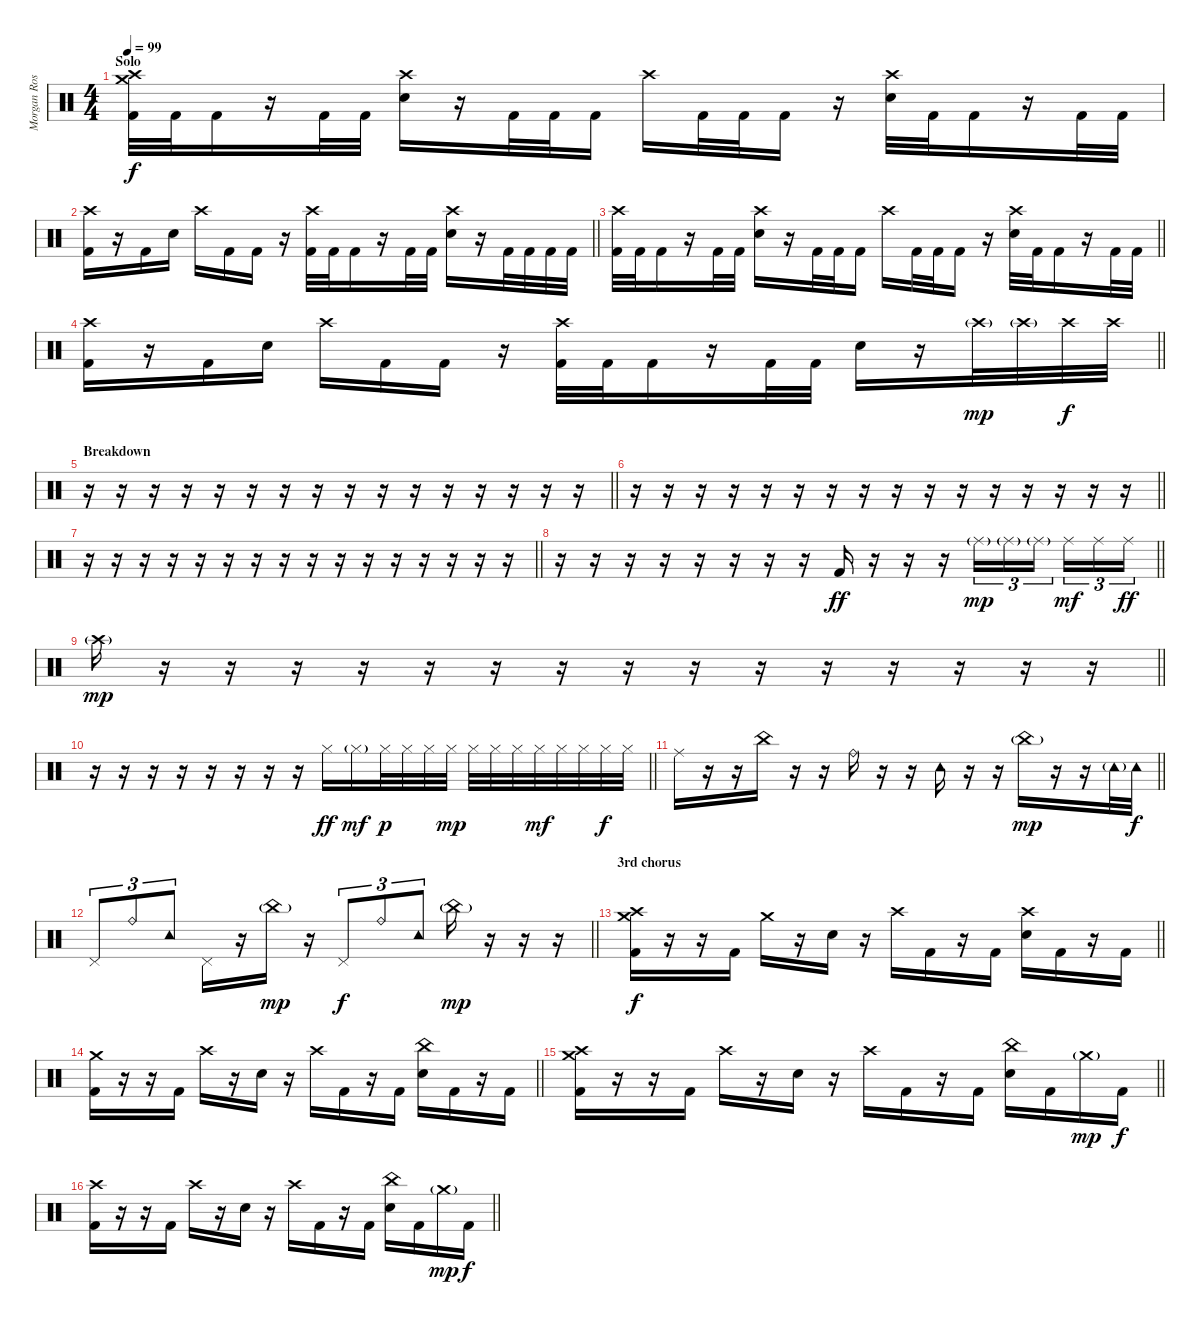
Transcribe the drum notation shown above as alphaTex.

\track ("Morgan Rose" "Morgan Ros") {instrument percussion}
\staff {score}
\articulation defaults
\ts (4 4)
\section ("" "Solo")
\tempo 99
\clef neutral
\ks c
("Crash medium (hit)" "Crash high (hit)" "Kick (hit) 2").32{dy f} "Kick (hit) 2".32 "Kick (hit) 2".16 r.16 "Kick (hit) 2".32 "Kick (hit) 2".32 ("Crash high (hit)" "Snare (hit) 2").16 r.16 "Kick (hit) 2".32 "Kick (hit) 2".32 "Kick (hit) 2".16 "Crash high (hit)".16 "Kick (hit) 2".32 "Kick (hit) 2".32 "Kick (hit) 2".16 r.16 ("Crash high (hit)" "Snare (hit) 2").32 "Kick (hit) 2".32 "Kick (hit) 2".16 r.16 "Kick (hit) 2".32 "Kick (hit) 2".32 |
\barLineRight lightlight
("Crash high (hit)" "Kick (hit) 2").16 r.16 "Kick (hit) 2".16 "Snare (hit) 2".16 "Crash high (hit)".16 "Kick (hit) 2".16 "Kick (hit) 2".16 r.16 ("Crash high (hit)" "Kick (hit) 2").32 "Kick (hit) 2".32 "Kick (hit) 2".16 r.16 "Kick (hit) 2".32 "Kick (hit) 2".32 ("Crash high (hit)" "Snare (hit) 2").16 r.16 "Kick (hit) 2".32 "Kick (hit) 2".32 "Kick (hit) 2".32 "Kick (hit) 2".32 |
\barLineRight lightlight
("Crash high (hit)" "Kick (hit) 2").32 "Kick (hit) 2".32 "Kick (hit) 2".16 r.16 "Kick (hit) 2".32 "Kick (hit) 2".32 ("Crash high (hit)" "Snare (hit) 2").16 r.16 "Kick (hit) 2".32 "Kick (hit) 2".32 "Kick (hit) 2".16 "Crash high (hit)".16 "Kick (hit) 2".32 "Kick (hit) 2".32 "Kick (hit) 2".16 r.16 ("Crash high (hit)" "Snare (hit) 2").32 "Kick (hit) 2".32 "Kick (hit) 2".16 r.16 "Kick (hit) 2".32 "Kick (hit) 2".32 |
\barLineRight lightlight
("Crash high (hit)" "Kick (hit) 2").16 r.16 "Kick (hit) 2".16 "Snare (hit) 2".16 "Crash high (hit)".16 "Kick (hit) 2".16 "Kick (hit) 2".16 r.16 ("Crash high (hit)" "Kick (hit) 2").32 "Kick (hit) 2".32 "Kick (hit) 2".16 r.16 "Kick (hit) 2".32 "Kick (hit) 2".32 "Snare (hit) 2".16 r.16 "Crash high (hit)"{g}.32{dy mp} "Crash high (hit)"{g}.32 "Crash high (hit)".32{dy f} "Crash high (hit)".32 |
\section ("" "Breakdown")
\barLineRight lightlight
r.16 r.16 r.16 r.16 r.16 r.16 r.16 r.16 r.16 r.16 r.16 r.16 r.16 r.16 r.16 r.16 |
\barLineRight lightlight
r.16 r.16 r.16 r.16 r.16 r.16 r.16 r.16 r.16 r.16 r.16 r.16 r.16 r.16 r.16 r.16 |
\barLineRight lightlight
r.16 r.16 r.16 r.16 r.16 r.16 r.16 r.16 r.16 r.16 r.16 r.16 r.16 r.16 r.16 r.16 |
\barLineRight lightlight
r.16 r.16 r.16 r.16 r.16 r.16 r.16 r.16 "Kick (hit) 2".16{dy ff} r.16 r.16 r.16 "Ride (middle)"{g}.16{tu (3 2) dy mp} "Ride (middle)"{g}.16{tu (3 2)} "Ride (middle)"{g}.16{tu (3 2) beam splitsecondary} "Ride (middle)".16{tu (3 2) dy mf} "Ride (middle)".16{tu (3 2)} "Ride (middle)".16{tu (3 2) dy ff} |
\barLineRight lightlight "Crash high (hit)"{g}.16{dy mp}
r.16 r.16 r.16 r.16 r.16 r.16 r.16 r.16 r.16 r.16 r.16 r.16 r.16 r.16 r.16 |
\barLineRight lightlight
r.16 r.16 r.16 r.16 r.16 r.16 r.16 r.16 "Hi-Hat (closed)".16{dy ff} "Hi-Hat (closed)"{g}.16{dy mf} "Hi-Hat (closed)".32{dy p} "Hi-Hat (closed)".32 "Hi-Hat (closed)".32 "Hi-Hat (closed)".32{dy mp} "Hi-Hat (closed)".32 "Hi-Hat (closed)".32 "Hi-Hat (closed)".32 "Hi-Hat (closed)".32{dy mf} "Hi-Hat (closed)".32 "Hi-Hat (closed)".32 "Hi-Hat (closed)".32{dy f} "Hi-Hat (closed)".32 |
\barLineRight lightlight "Ride (middle)".16
r.16 r.16 "China (hit)".16 r.16 r.16 "Ride (bell)".16 r.16 r.16 "Tambourine (hit)".16 r.16 r.16 "China (hit)"{g}.16{dy mp} r.16 r.16 "Tambourine (hit)"{g}.32 "Tambourine (hit)".32{dy f} |
\barLineRight lightlight "Pedal Hi-Hat (hit)".8{tu (3 2)} "Ride (bell)".8{tu (3 2)} "Tambourine (hit)".8{tu (3 2)} "Pedal Hi-Hat (hit)".16
r.16 "China (hit)"{g}.16{dy mp} r.16 "Pedal Hi-Hat (hit)".8{tu (3 2) dy f} "Ride (bell)".8{tu (3 2)} "Tambourine (hit)".8{tu (3 2)} "China (hit)"{g}.16{dy mp} r.16 r.16 r.16 |
\section ("" "3rd chorus")
\barLineRight lightlight
("Crash medium (hit)" "Crash high (hit)" "Kick (hit) 2").16{dy f} r.16 r.16 "Kick (hit) 2".16 "Crash medium (hit)".16 r.16 "Snare (hit) 2".16 r.16 "Crash high (hit)".16 "Kick (hit) 2".16 r.16 "Kick (hit) 2".16 ("Crash high (hit)" "Snare (hit) 2").16 "Kick (hit) 2".16 r.16 "Kick (hit) 2".16 |
\barLineRight lightlight
("Crash medium (hit)" "Kick (hit) 2").16 r.16 r.16 "Kick (hit) 2".16 "Crash high (hit)".16 r.16 "Snare (hit) 2".16 r.16 "Crash high (hit)".16 "Kick (hit) 2".16 r.16 "Kick (hit) 2".16 ("China (hit)" "Snare (hit) 2").16 "Kick (hit) 2".16 r.16 "Kick (hit) 2".16 |
\barLineRight lightlight
("Crash medium (hit)" "Crash high (hit)" "Kick (hit) 2").16 r.16 r.16 "Kick (hit) 2".16 "Crash high (hit)".16 r.16 "Snare (hit) 2".16 r.16 "Crash high (hit)".16 "Kick (hit) 2".16 r.16 "Kick (hit) 2".16 ("China (hit)" "Snare (hit) 2").16 "Kick (hit) 2".16 "Crash medium (hit)"{g}.16{dy mp} "Kick (hit) 2".16{dy f} |
\barLineRight lightlight
("Crash high (hit)" "Kick (hit) 2").16 r.16 r.16 "Kick (hit) 2".16 "Crash high (hit)".16 r.16 "Snare (hit) 2".16 r.16 "Crash high (hit)".16 "Kick (hit) 2".16 r.16 "Kick (hit) 2".16 ("China (hit)" "Snare (hit) 2").16 "Kick (hit) 2".16 "Crash medium (hit)"{g}.16{dy mp} "Kick (hit) 2".16{dy f}
